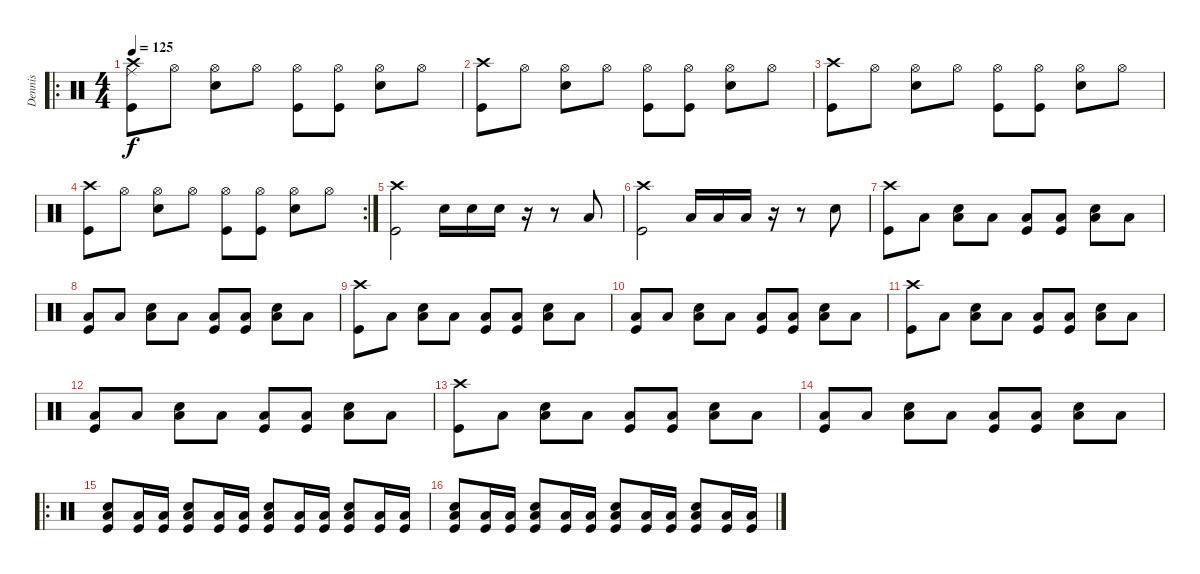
\track ("Dennis" "Dennis") {instrument percussion}
\staff {score}
\articulation defaults
\ro
\ts (4 4)
\tempo 125
\clef neutral
\ks c
("Kick (hit)" "Crash high (hit)" "Ride (middle)").8{dy f} "Hi-Hat (open)".8 ("Hi-Hat (open)" "Electric Snare (hit)").8 "Hi-Hat (open)".8 ("Hi-Hat (open)" "Kick (hit)").8 ("Hi-Hat (open)" "Kick (hit)").8 ("Hi-Hat (open)" "Electric Snare (hit)").8 "Hi-Hat (open)".8 |
("Kick (hit)" "Crash high (hit)").8 "Hi-Hat (open)".8 ("Hi-Hat (open)" "Electric Snare (hit)").8 "Hi-Hat (open)".8 ("Hi-Hat (open)" "Kick (hit)").8 ("Hi-Hat (open)" "Kick (hit)").8 ("Hi-Hat (open)" "Electric Snare (hit)").8 "Hi-Hat (open)".8 |
("Kick (hit)" "Crash high (hit)").8 "Hi-Hat (open)".8 ("Hi-Hat (open)" "Electric Snare (hit)").8 "Hi-Hat (open)".8 ("Hi-Hat (open)" "Kick (hit)").8 ("Hi-Hat (open)" "Kick (hit)").8 ("Hi-Hat (open)" "Electric Snare (hit)").8 "Hi-Hat (open)".8 |
\rc 2
("Kick (hit)" "Crash high (hit)").8 "Hi-Hat (open)".8 ("Hi-Hat (open)" "Electric Snare (hit)").8 "Hi-Hat (open)".8 ("Hi-Hat (open)" "Kick (hit)").8 ("Hi-Hat (open)" "Kick (hit)").8 ("Hi-Hat (open)" "Electric Snare (hit)").8 "Hi-Hat (open)".8 |
("Kick (hit)" "Crash high (hit)").2 "Electric Snare (hit)".16 "Electric Snare (hit)".16 "Electric Snare (hit)".16 r.16 r.8 "Low Tom (hit)".8 |
("Kick (hit)" "Crash high (hit)").2 "Low Tom (hit)".16 "Low Tom (hit)".16 "Low Tom (hit)".16 r.16 r.8 "Electric Snare (hit)".8 |
("Kick (hit)" "Crash high (hit)").8 "Low Floor Tom (hit)".8 ("Electric Snare (hit)" "Low Floor Tom (hit)").8 "Low Floor Tom (hit)".8 ("Kick (hit)" "Low Floor Tom (hit)").8 ("Kick (hit)" "Low Floor Tom (hit)").8 ("Electric Snare (hit)" "Low Floor Tom (hit)").8 "Low Floor Tom (hit)".8 |
("Kick (hit)" "Low Floor Tom (hit)").8 "Low Floor Tom (hit)".8 ("Electric Snare (hit)" "Low Floor Tom (hit)").8 "Low Floor Tom (hit)".8 ("Kick (hit)" "Low Floor Tom (hit)").8 ("Kick (hit)" "Low Floor Tom (hit)").8 ("Electric Snare (hit)" "Low Floor Tom (hit)").8 "Low Floor Tom (hit)".8 |
("Kick (hit)" "Crash high (hit)").8 "Low Floor Tom (hit)".8 ("Electric Snare (hit)" "Low Floor Tom (hit)").8 "Low Floor Tom (hit)".8 ("Kick (hit)" "Low Floor Tom (hit)").8 ("Kick (hit)" "Low Floor Tom (hit)").8 ("Electric Snare (hit)" "Low Floor Tom (hit)").8 "Low Floor Tom (hit)".8 |
("Kick (hit)" "Low Floor Tom (hit)").8 "Low Floor Tom (hit)".8 ("Electric Snare (hit)" "Low Floor Tom (hit)").8 "Low Floor Tom (hit)".8 ("Kick (hit)" "Low Floor Tom (hit)").8 ("Kick (hit)" "Low Floor Tom (hit)").8 ("Electric Snare (hit)" "Low Floor Tom (hit)").8 "Low Floor Tom (hit)".8 |
("Kick (hit)" "Crash high (hit)").8 "Low Floor Tom (hit)".8 ("Electric Snare (hit)" "Low Floor Tom (hit)").8 "Low Floor Tom (hit)".8 ("Kick (hit)" "Low Floor Tom (hit)").8 ("Kick (hit)" "Low Floor Tom (hit)").8 ("Electric Snare (hit)" "Low Floor Tom (hit)").8 "Low Floor Tom (hit)".8 |
("Kick (hit)" "Low Floor Tom (hit)").8 "Low Floor Tom (hit)".8 ("Electric Snare (hit)" "Low Floor Tom (hit)").8 "Low Floor Tom (hit)".8 ("Kick (hit)" "Low Floor Tom (hit)").8 ("Kick (hit)" "Low Floor Tom (hit)").8 ("Electric Snare (hit)" "Low Floor Tom (hit)").8 "Low Floor Tom (hit)".8 |
("Kick (hit)" "Crash high (hit)").8 "Low Floor Tom (hit)".8 ("Electric Snare (hit)" "Low Floor Tom (hit)").8 "Low Floor Tom (hit)".8 ("Kick (hit)" "Low Floor Tom (hit)").8 ("Kick (hit)" "Low Floor Tom (hit)").8 ("Electric Snare (hit)" "Low Floor Tom (hit)").8 "Low Floor Tom (hit)".8 |
("Kick (hit)" "Low Floor Tom (hit)").8 "Low Floor Tom (hit)".8 ("Electric Snare (hit)" "Low Floor Tom (hit)").8 "Low Floor Tom (hit)".8 ("Kick (hit)" "Low Floor Tom (hit)").8 ("Kick (hit)" "Low Floor Tom (hit)").8 ("Electric Snare (hit)" "Low Floor Tom (hit)").8 "Low Floor Tom (hit)".8 |
\ro
("Kick (hit)" "Low Floor Tom (hit)" "Electric Snare (hit)").8 ("Kick (hit)" "Low Floor Tom (hit)").16 ("Kick (hit)" "Low Floor Tom (hit)").16 ("Kick (hit)" "Low Floor Tom (hit)" "Electric Snare (hit)").8 ("Kick (hit)" "Low Floor Tom (hit)").16 ("Kick (hit)" "Low Floor Tom (hit)").16 ("Kick (hit)" "Low Floor Tom (hit)" "Electric Snare (hit)").8 ("Kick (hit)" "Low Floor Tom (hit)").16 ("Kick (hit)" "Low Floor Tom (hit)").16 ("Kick (hit)" "Low Floor Tom (hit)" "Electric Snare (hit)").8 ("Kick (hit)" "Low Floor Tom (hit)").16 ("Kick (hit)" "Low Floor Tom (hit)").16 |
("Kick (hit)" "Low Floor Tom (hit)" "Electric Snare (hit)").8 ("Kick (hit)" "Low Floor Tom (hit)").16 ("Kick (hit)" "Low Floor Tom (hit)").16 ("Kick (hit)" "Low Floor Tom (hit)" "Electric Snare (hit)").8 ("Kick (hit)" "Low Floor Tom (hit)").16 ("Kick (hit)" "Low Floor Tom (hit)").16 ("Kick (hit)" "Low Floor Tom (hit)" "Electric Snare (hit)").8 ("Kick (hit)" "Low Floor Tom (hit)").16 ("Kick (hit)" "Low Floor Tom (hit)").16 ("Kick (hit)" "Low Floor Tom (hit)" "Electric Snare (hit)").8 ("Kick (hit)" "Low Floor Tom (hit)").16 ("Kick (hit)" "Low Floor Tom (hit)").16
